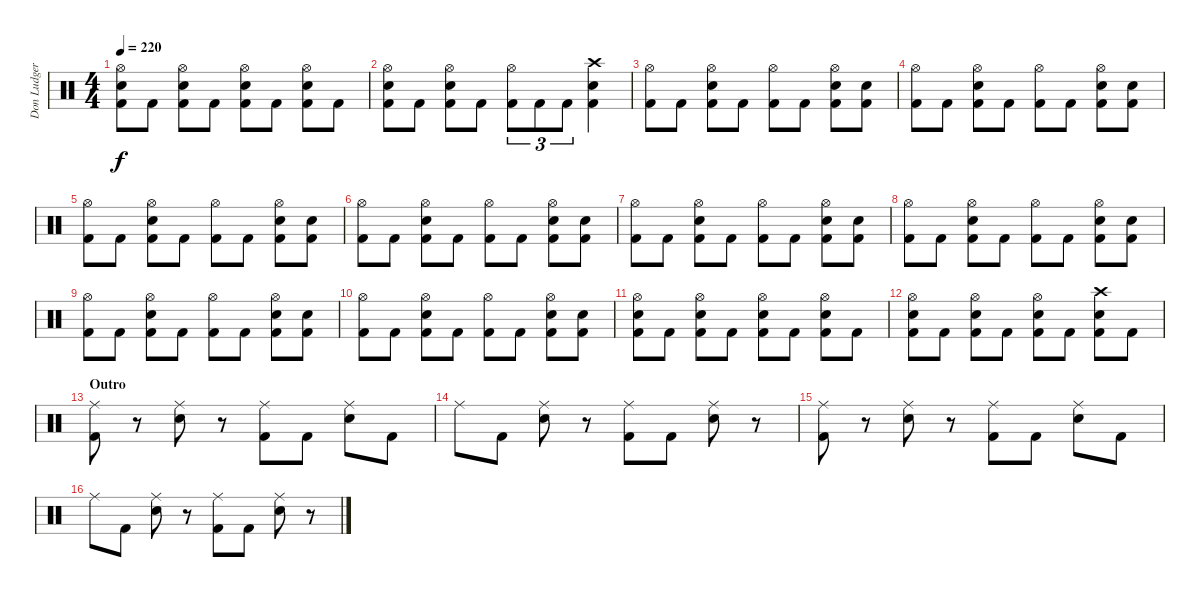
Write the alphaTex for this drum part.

\track ("Don Ludger" "Don Ludger") {instrument percussion}
\staff {score}
\articulation defaults
\ts (4 4)
\tempo 220
\clef neutral
\ks c
("Hi-Hat (open)" "Electric Snare (hit)" "Kick (hit) 2").8{dy f} "Kick (hit) 2".8 ("Hi-Hat (open)" "Electric Snare (hit)" "Kick (hit) 2").8 "Kick (hit) 2".8 ("Hi-Hat (open)" "Electric Snare (hit)" "Kick (hit) 2").8 "Kick (hit) 2".8 ("Hi-Hat (open)" "Electric Snare (hit)" "Kick (hit) 2").8 "Kick (hit) 2".8 |
("Hi-Hat (open)" "Electric Snare (hit)" "Kick (hit) 2").8 "Kick (hit) 2".8 ("Hi-Hat (open)" "Electric Snare (hit)" "Kick (hit) 2").8 "Kick (hit) 2".8 ("Hi-Hat (open)" "Kick (hit) 2").8{tu (3 2)} "Kick (hit) 2".8{tu (3 2)} "Kick (hit) 2".8{tu (3 2)} ("Crash high (hit)" "Electric Snare (hit)" "Kick (hit) 2").4 |
("Hi-Hat (open)" "Kick (hit) 2").8 "Kick (hit) 2".8 ("Hi-Hat (open)" "Electric Snare (hit)" "Kick (hit) 2").8 "Kick (hit) 2".8 ("Hi-Hat (open)" "Kick (hit) 2").8 "Kick (hit) 2".8 ("Hi-Hat (open)" "Electric Snare (hit)" "Kick (hit) 2").8 ("Electric Snare (hit)" "Kick (hit) 2").8 |
("Hi-Hat (open)" "Kick (hit) 2").8 "Kick (hit) 2".8 ("Hi-Hat (open)" "Electric Snare (hit)" "Kick (hit) 2").8 "Kick (hit) 2".8 ("Hi-Hat (open)" "Kick (hit) 2").8 "Kick (hit) 2".8 ("Hi-Hat (open)" "Electric Snare (hit)" "Kick (hit) 2").8 ("Electric Snare (hit)" "Kick (hit) 2").8 |
("Hi-Hat (open)" "Kick (hit) 2").8 "Kick (hit) 2".8 ("Hi-Hat (open)" "Electric Snare (hit)" "Kick (hit) 2").8 "Kick (hit) 2".8 ("Hi-Hat (open)" "Kick (hit) 2").8 "Kick (hit) 2".8 ("Hi-Hat (open)" "Electric Snare (hit)" "Kick (hit) 2").8 ("Electric Snare (hit)" "Kick (hit) 2").8 |
("Hi-Hat (open)" "Kick (hit) 2").8 "Kick (hit) 2".8 ("Hi-Hat (open)" "Electric Snare (hit)" "Kick (hit) 2").8 "Kick (hit) 2".8 ("Hi-Hat (open)" "Kick (hit) 2").8 "Kick (hit) 2".8 ("Hi-Hat (open)" "Electric Snare (hit)" "Kick (hit) 2").8 ("Electric Snare (hit)" "Kick (hit) 2").8 |
("Hi-Hat (open)" "Kick (hit) 2").8 "Kick (hit) 2".8 ("Hi-Hat (open)" "Electric Snare (hit)" "Kick (hit) 2").8 "Kick (hit) 2".8 ("Hi-Hat (open)" "Kick (hit) 2").8 "Kick (hit) 2".8 ("Hi-Hat (open)" "Electric Snare (hit)" "Kick (hit) 2").8 ("Electric Snare (hit)" "Kick (hit) 2").8 |
("Hi-Hat (open)" "Kick (hit) 2").8 "Kick (hit) 2".8 ("Hi-Hat (open)" "Electric Snare (hit)" "Kick (hit) 2").8 "Kick (hit) 2".8 ("Hi-Hat (open)" "Kick (hit) 2").8 "Kick (hit) 2".8 ("Hi-Hat (open)" "Electric Snare (hit)" "Kick (hit) 2").8 ("Electric Snare (hit)" "Kick (hit) 2").8 |
("Hi-Hat (open)" "Kick (hit) 2").8 "Kick (hit) 2".8 ("Hi-Hat (open)" "Electric Snare (hit)" "Kick (hit) 2").8 "Kick (hit) 2".8 ("Hi-Hat (open)" "Kick (hit) 2").8 "Kick (hit) 2".8 ("Hi-Hat (open)" "Electric Snare (hit)" "Kick (hit) 2").8 ("Electric Snare (hit)" "Kick (hit) 2").8 |
("Hi-Hat (open)" "Kick (hit) 2").8 "Kick (hit) 2".8 ("Hi-Hat (open)" "Electric Snare (hit)" "Kick (hit) 2").8 "Kick (hit) 2".8 ("Hi-Hat (open)" "Kick (hit) 2").8 "Kick (hit) 2".8 ("Hi-Hat (open)" "Electric Snare (hit)" "Kick (hit) 2").8 ("Electric Snare (hit)" "Kick (hit) 2").8 |
("Hi-Hat (open)" "Electric Snare (hit)" "Kick (hit) 2").8 "Kick (hit) 2".8 ("Hi-Hat (open)" "Electric Snare (hit)" "Kick (hit) 2").8 "Kick (hit) 2".8 ("Hi-Hat (open)" "Electric Snare (hit)" "Kick (hit) 2").8 "Kick (hit) 2".8 ("Hi-Hat (open)" "Electric Snare (hit)" "Kick (hit) 2").8 "Kick (hit) 2".8 |
("Hi-Hat (open)" "Electric Snare (hit)" "Kick (hit) 2").8 "Kick (hit) 2".8 ("Hi-Hat (open)" "Electric Snare (hit)" "Kick (hit) 2").8 "Kick (hit) 2".8 ("Hi-Hat (open)" "Electric Snare (hit)" "Kick (hit) 2").8 "Kick (hit) 2".8 ("Crash high (hit)" "Electric Snare (hit)" "Kick (hit) 2").8 "Kick (hit) 2".8 |
\section ("" "Outro")
("Ride (middle)" "Kick (hit) 2").8 r.8 ("Ride (middle)" "Electric Snare (hit)").8 r.8 ("Ride (middle)" "Kick (hit) 2").8 "Kick (hit) 2".8 ("Ride (middle)" "Electric Snare (hit)").8 "Kick (hit) 2".8 |
"Ride (middle)".8 "Kick (hit) 2".8 ("Ride (middle)" "Electric Snare (hit)").8 r.8 ("Ride (middle)" "Kick (hit) 2").8 "Kick (hit) 2".8 ("Ride (middle)" "Electric Snare (hit)").8 r.8 |
("Ride (middle)" "Kick (hit) 2").8 r.8 ("Ride (middle)" "Electric Snare (hit)").8 r.8 ("Ride (middle)" "Kick (hit) 2").8 "Kick (hit) 2".8 ("Ride (middle)" "Electric Snare (hit)").8 "Kick (hit) 2".8 |
"Ride (middle)".8 "Kick (hit) 2".8 ("Ride (middle)" "Electric Snare (hit)").8 r.8 ("Ride (middle)" "Kick (hit) 2").8 "Kick (hit) 2".8 ("Ride (middle)" "Electric Snare (hit)").8 r.8
